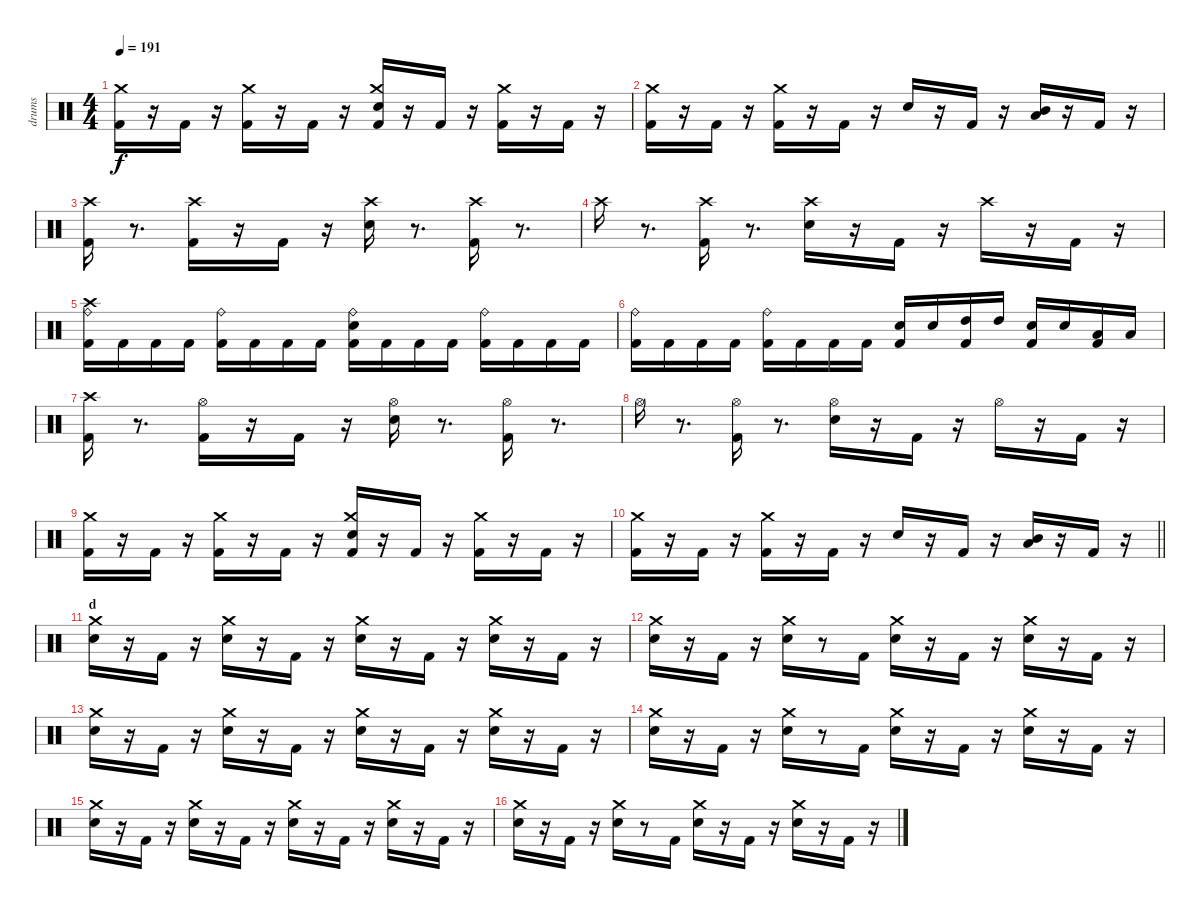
\track ("drums" "drums") {instrument percussion}
\staff {score}
\articulation defaults
\ts (4 4)
\tempo 191
\clef neutral
\ks c
("Kick (hit) 2" "Crash medium (hit)").16{dy f} r.16 "Kick (hit) 2".16 r.16 ("Kick (hit) 2" "Crash medium (hit)").16 r.16 "Kick (hit) 2".16 r.16 ("Kick (hit) 2" "Snare (hit) 2" "Crash medium (hit)").16 r.16 "Kick (hit) 2".16 r.16 ("Kick (hit) 2" "Crash medium (hit)").16 r.16 "Kick (hit) 2".16 r.16 |
("Kick (hit) 2" "Crash medium (hit)").16 r.16 "Kick (hit) 2".16 r.16 ("Kick (hit) 2" "Crash medium (hit)").16 r.16 "Kick (hit) 2".16 r.16 "Snare (hit) 2".16 r.16 "Kick (hit) 2".16 r.16 ("Low Tom (hit)" "Mid Tom (hit)").16 r.16 "Kick (hit) 2".16 r.16 |
("Kick (hit) 2" "Crash high (hit)").16 r.8{d} ("Kick (hit) 2" "Crash high (hit)").16 r.16 "Kick (hit) 2".16 r.16 ("Snare (hit) 2" "Crash high (hit)").16 r.8{d} ("Kick (hit) 2" "Crash high (hit)").16 r.8{d} |
"Crash high (hit)".16 r.8{d} ("Kick (hit) 2" "Crash high (hit)").16 r.8{d} ("Snare (hit) 2" "Crash high (hit)").16 r.16 "Kick (hit) 2".16 r.16 "Crash high (hit)".16 r.16 "Kick (hit) 2".16 r.16 |
("Kick (hit) 2" "Crash high (hit)" "Ride (bell)").16 "Kick (hit) 2".16 "Kick (hit) 2".16 "Kick (hit) 2".16 ("Kick (hit) 2" "Ride (bell)").16 "Kick (hit) 2".16 "Kick (hit) 2".16 "Kick (hit) 2".16 ("Kick (hit) 2" "Snare (hit) 2" "Ride (bell)").16 "Kick (hit) 2".16 "Kick (hit) 2".16 "Kick (hit) 2".16 ("Kick (hit) 2" "Ride (bell)").16 "Kick (hit) 2".16 "Kick (hit) 2".16 "Kick (hit) 2".16 |
("Kick (hit) 2" "Ride (bell)").16 "Kick (hit) 2".16 "Kick (hit) 2".16 "Kick (hit) 2".16 ("Kick (hit) 2" "Ride (bell)").16 "Kick (hit) 2".16 "Kick (hit) 2".16 "Kick (hit) 2".16 ("Kick (hit) 2" "Snare (hit) 2").16 "Snare (hit) 2".16 ("Kick (hit) 2" "High Tom (hit)").16 "High Tom (hit)".16 ("Kick (hit) 2" "Snare (hit) 2").16 "Snare (hit) 2".16 ("Kick (hit) 2" "Low Tom (hit)").16 "Low Tom (hit)".16 |
("Kick (hit) 2" "Crash high (hit)").16 r.8{d} ("Kick (hit) 2" "Hi-Hat (open)").16 r.16 "Kick (hit) 2".16 r.16 ("Snare (hit) 2" "Hi-Hat (open)").16 r.8{d} ("Kick (hit) 2" "Hi-Hat (open)").16 r.8{d} |
"Hi-Hat (open)".16 r.8{d} ("Kick (hit) 2" "Hi-Hat (open)").16 r.8{d} ("Snare (hit) 2" "Hi-Hat (open)").16 r.16 "Kick (hit) 2".16 r.16 "Hi-Hat (open)".16 r.16 "Kick (hit) 2".16 r.16 |
("Kick (hit) 2" "Crash medium (hit)").16 r.16 "Kick (hit) 2".16 r.16 ("Kick (hit) 2" "Crash medium (hit)").16 r.16 "Kick (hit) 2".16 r.16 ("Kick (hit) 2" "Snare (hit) 2" "Crash medium (hit)").16 r.16 "Kick (hit) 2".16 r.16 ("Kick (hit) 2" "Crash medium (hit)").16 r.16 "Kick (hit) 2".16 r.16 |
\barLineRight lightlight
("Kick (hit) 2" "Crash medium (hit)").16 r.16 "Kick (hit) 2".16 r.16 ("Kick (hit) 2" "Crash medium (hit)").16 r.16 "Kick (hit) 2".16 r.16 "Snare (hit) 2".16 r.16 "Kick (hit) 2".16 r.16 ("Low Tom (hit)" "Mid Tom (hit)").16 r.16 "Kick (hit) 2".16 r.16 |
\section ("" "d")
("Snare (hit) 2" "Crash medium (hit)").16 r.16 "Kick (hit) 2".16 r.16 ("Snare (hit) 2" "Crash medium (hit)").16 r.16 "Kick (hit) 2".16 r.16 ("Snare (hit) 2" "Crash medium (hit)").16 r.16 "Kick (hit) 2".16 r.16 ("Snare (hit) 2" "Crash medium (hit)").16 r.16 "Kick (hit) 2".16 r.16 |
("Snare (hit) 2" "Crash medium (hit)").16 r.16 "Kick (hit) 2".16 r.16 ("Snare (hit) 2" "Crash medium (hit)").16 r.8 "Kick (hit) 2".16 ("Snare (hit) 2" "Crash medium (hit)").16 r.16 "Kick (hit) 2".16 r.16 ("Snare (hit) 2" "Crash medium (hit)").16 r.16 "Kick (hit) 2".16 r.16 |
("Snare (hit) 2" "Crash medium (hit)").16 r.16 "Kick (hit) 2".16 r.16 ("Snare (hit) 2" "Crash medium (hit)").16 r.16 "Kick (hit) 2".16 r.16 ("Snare (hit) 2" "Crash medium (hit)").16 r.16 "Kick (hit) 2".16 r.16 ("Snare (hit) 2" "Crash medium (hit)").16 r.16 "Kick (hit) 2".16 r.16 |
("Snare (hit) 2" "Crash medium (hit)").16 r.16 "Kick (hit) 2".16 r.16 ("Snare (hit) 2" "Crash medium (hit)").16 r.8 "Kick (hit) 2".16 ("Snare (hit) 2" "Crash medium (hit)").16 r.16 "Kick (hit) 2".16 r.16 ("Snare (hit) 2" "Crash medium (hit)").16 r.16 "Kick (hit) 2".16 r.16 |
("Snare (hit) 2" "Crash medium (hit)").16 r.16 "Kick (hit) 2".16 r.16 ("Snare (hit) 2" "Crash medium (hit)").16 r.16 "Kick (hit) 2".16 r.16 ("Snare (hit) 2" "Crash medium (hit)").16 r.16 "Kick (hit) 2".16 r.16 ("Snare (hit) 2" "Crash medium (hit)").16 r.16 "Kick (hit) 2".16 r.16 |
("Snare (hit) 2" "Crash medium (hit)").16 r.16 "Kick (hit) 2".16 r.16 ("Snare (hit) 2" "Crash medium (hit)").16 r.8 "Kick (hit) 2".16 ("Snare (hit) 2" "Crash medium (hit)").16 r.16 "Kick (hit) 2".16 r.16 ("Snare (hit) 2" "Crash medium (hit)").16 r.16 "Kick (hit) 2".16 r.16
